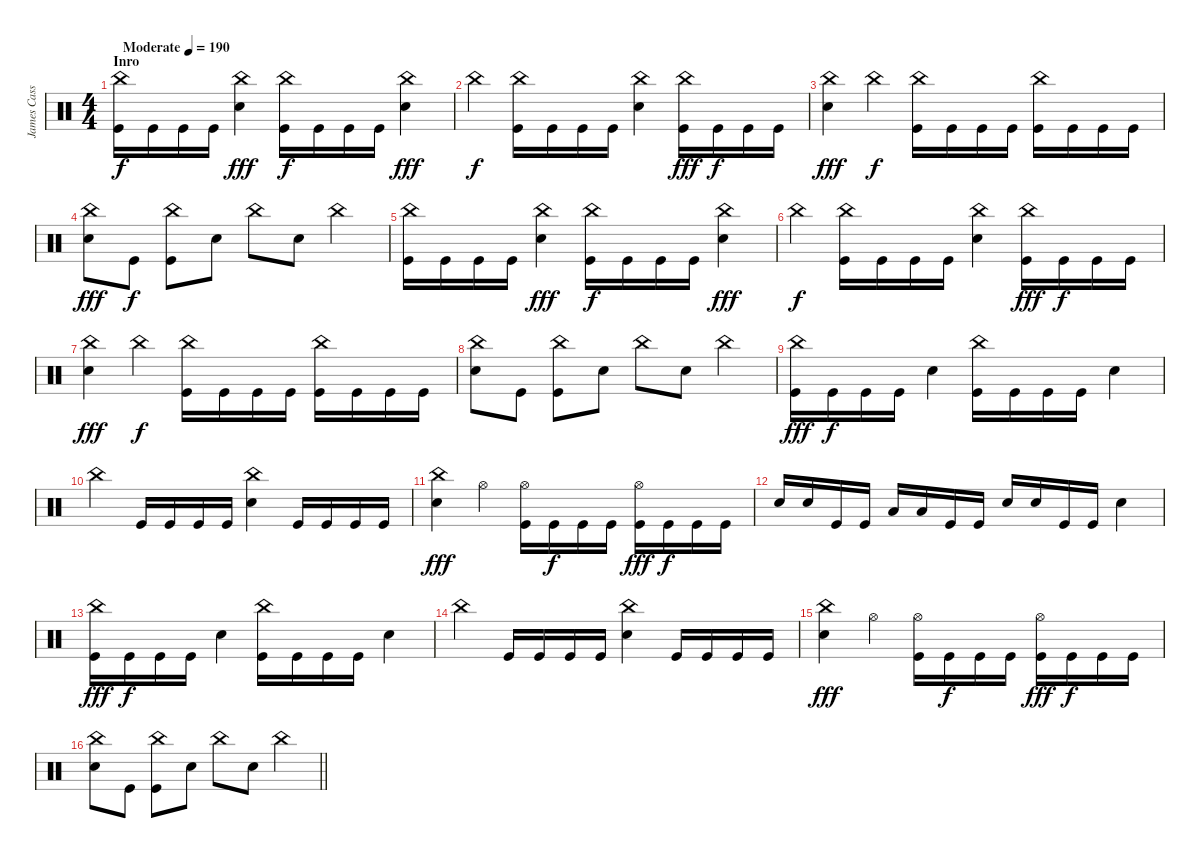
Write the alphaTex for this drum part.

\track ("James Cassells" "James Cass") {instrument percussion}
\staff {score}
\articulation defaults
\ts (4 4)
\section ("" "Inro")
\tempo (190 "Moderate")
\clef neutral
\ks c
("China (hit)" "Kick (hit)").16{dy f} "Kick (hit)".16 "Kick (hit)".16 "Kick (hit)".16 ("China (hit)" "Snare (hit) 2").4{dy fff} ("China (hit)" "Kick (hit)").16{dy f} "Kick (hit)".16 "Kick (hit)".16 "Kick (hit)".16 ("China (hit)" "Snare (hit) 2").4{dy fff} |
"China (hit)".4{dy f} ("China (hit)" "Kick (hit)").16 "Kick (hit)".16 "Kick (hit)".16 "Kick (hit)".16 ("China (hit)" "Snare (hit) 2").4 ("China (hit)" "Kick (hit)").16{dy fff} "Kick (hit)".16{dy f} "Kick (hit)".16 "Kick (hit)".16 |
("China (hit)" "Snare (hit) 2").4{dy fff} "China (hit)".4{dy f} ("China (hit)" "Kick (hit)").16 "Kick (hit)".16 "Kick (hit)".16 "Kick (hit)".16 ("China (hit)" "Kick (hit)").16 "Kick (hit)".16 "Kick (hit)".16 "Kick (hit)".16 |
("China (hit)" "Snare (hit) 2").8{dy fff} "Kick (hit)".8{dy f} ("China (hit)" "Kick (hit)").8 "Snare (hit) 2".8 "China (hit)".8 "Snare (hit) 2".8 "China (hit)".4 |
("China (hit)" "Kick (hit)").16 "Kick (hit)".16 "Kick (hit)".16 "Kick (hit)".16 ("China (hit)" "Snare (hit) 2").4{dy fff} ("China (hit)" "Kick (hit)").16{dy f} "Kick (hit)".16 "Kick (hit)".16 "Kick (hit)".16 ("China (hit)" "Snare (hit) 2").4{dy fff} |
"China (hit)".4{dy f} ("China (hit)" "Kick (hit)").16 "Kick (hit)".16 "Kick (hit)".16 "Kick (hit)".16 ("China (hit)" "Snare (hit) 2").4 ("China (hit)" "Kick (hit)").16{dy fff} "Kick (hit)".16{dy f} "Kick (hit)".16 "Kick (hit)".16 |
("China (hit)" "Snare (hit) 2").4{dy fff} "China (hit)".4{dy f} ("China (hit)" "Kick (hit)").16 "Kick (hit)".16 "Kick (hit)".16 "Kick (hit)".16 ("China (hit)" "Kick (hit)").16 "Kick (hit)".16 "Kick (hit)".16 "Kick (hit)".16 |
("China (hit)" "Snare (hit) 2").8 "Kick (hit)".8 ("China (hit)" "Kick (hit)").8 "Snare (hit) 2".8 "China (hit)".8 "Snare (hit) 2".8 "China (hit)".4 |
("China (hit)" "Kick (hit)").16{dy fff} "Kick (hit)".16{dy f} "Kick (hit)".16 "Kick (hit)".16 "Snare (hit) 2".4 ("China (hit)" "Kick (hit)").16 "Kick (hit)".16 "Kick (hit)".16 "Kick (hit)".16 "Snare (hit) 2".4 |
"China (hit)".4 "Kick (hit)".16 "Kick (hit)".16 "Kick (hit)".16 "Kick (hit)".16 ("China (hit)" "Snare (hit) 2").4 "Kick (hit)".16 "Kick (hit)".16 "Kick (hit)".16 "Kick (hit)".16 |
("China (hit)" "Snare (hit) 2").4{dy fff} "Hi-Hat (open)".4 ("Hi-Hat (open)" "Kick (hit)").16 "Kick (hit)".16{dy f} "Kick (hit)".16 "Kick (hit)".16 ("Hi-Hat (open)" "Kick (hit)").16{dy fff} "Kick (hit)".16{dy f} "Kick (hit)".16 "Kick (hit)".16 |
"Snare (hit) 2".16 "Snare (hit) 2".16 "Kick (hit)".16 "Kick (hit)".16 "Low Tom (hit)".16 "Low Tom (hit)".16 "Kick (hit)".16 "Kick (hit)".16 "Snare (hit) 2".16 "Snare (hit) 2".16 "Kick (hit)".16 "Kick (hit)".16 "Snare (hit) 2".4 |
("China (hit)" "Kick (hit)").16{dy fff} "Kick (hit)".16{dy f} "Kick (hit)".16 "Kick (hit)".16 "Snare (hit) 2".4 ("China (hit)" "Kick (hit)").16 "Kick (hit)".16 "Kick (hit)".16 "Kick (hit)".16 "Snare (hit) 2".4 |
"China (hit)".4 "Kick (hit)".16 "Kick (hit)".16 "Kick (hit)".16 "Kick (hit)".16 ("China (hit)" "Snare (hit) 2").4 "Kick (hit)".16 "Kick (hit)".16 "Kick (hit)".16 "Kick (hit)".16 |
("China (hit)" "Snare (hit) 2").4{dy fff} "Hi-Hat (open)".4 ("Hi-Hat (open)" "Kick (hit)").16 "Kick (hit)".16{dy f} "Kick (hit)".16 "Kick (hit)".16 ("Hi-Hat (open)" "Kick (hit)").16{dy fff} "Kick (hit)".16{dy f} "Kick (hit)".16 "Kick (hit)".16 |
\barLineRight lightlight
("China (hit)" "Snare (hit) 2").8 "Kick (hit)".8 ("China (hit)" "Kick (hit)").8 "Snare (hit) 2".8 "China (hit)".8 "Snare (hit) 2".8 "China (hit)".4
